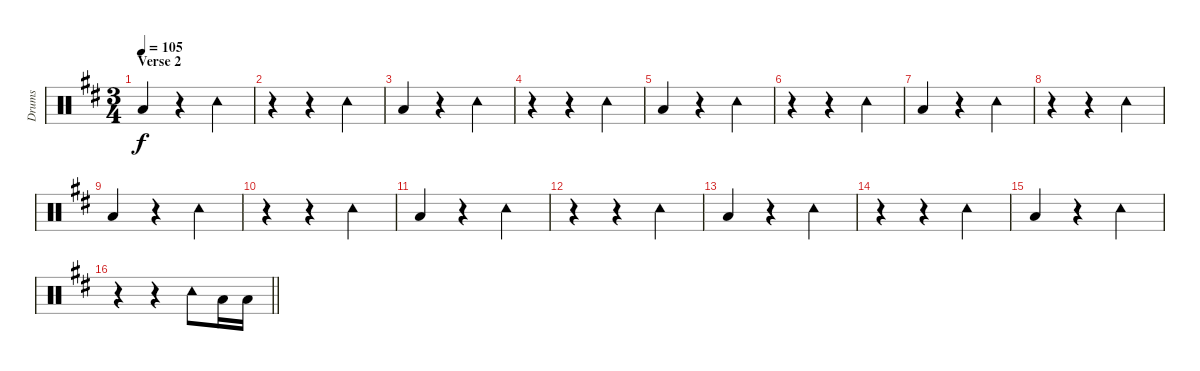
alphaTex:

\track ("Drums" "Drums") {instrument percussion}
\staff {score}
\articulation defaults
\ts (3 4)
\section ("" "Verse 2")
\tempo 105
\clef neutral
\ks d "Low Floor Tom (hit)".4{dy f}
r.4 "Tambourine (hit)".4 |
r.4 r.4 "Tambourine (hit)".4 |
"Low Floor Tom (hit)".4 r.4 "Tambourine (hit)".4 |
r.4 r.4 "Tambourine (hit)".4 |
"Low Floor Tom (hit)".4 r.4 "Tambourine (hit)".4 |
r.4 r.4 "Tambourine (hit)".4 |
"Low Floor Tom (hit)".4 r.4 "Tambourine (hit)".4 |
r.4 r.4 "Tambourine (hit)".4 |
"Low Floor Tom (hit)".4 r.4 "Tambourine (hit)".4 |
r.4 r.4 "Tambourine (hit)".4 |
"Low Floor Tom (hit)".4 r.4 "Tambourine (hit)".4 |
r.4 r.4 "Tambourine (hit)".4 |
"Low Floor Tom (hit)".4 r.4 "Tambourine (hit)".4 |
r.4 r.4 "Tambourine (hit)".4 |
"Low Floor Tom (hit)".4 r.4 "Tambourine (hit)".4 |
\barLineRight lightlight
r.4 r.4 "Tambourine (hit)".8 "Low Floor Tom (hit)".16 "Low Floor Tom (hit)".16
